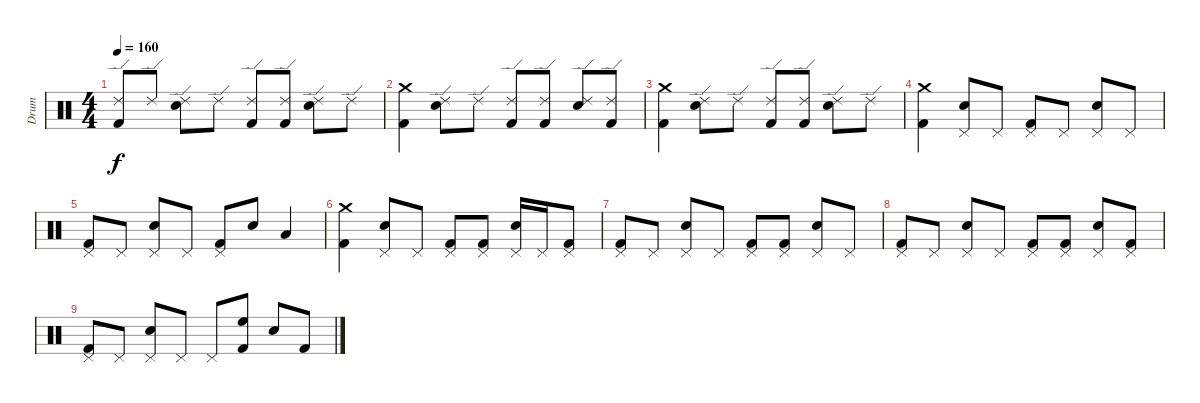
\track ("Drum" "Drum") {instrument percussion}
\staff {score}
\articulation defaults
\ts (4 4)
\tempo 160
\clef neutral
\ks c
("Ride (edge) 2" "Kick (hit) 2").8{dy f} "Ride (edge) 2".8 ("Ride (edge) 2" "Electric Snare (hit)").8 "Ride (edge) 2".8 ("Ride (edge) 2" "Kick (hit) 2").8 ("Ride (edge) 2" "Kick (hit) 2").8 ("Ride (edge) 2" "Electric Snare (hit)").8 "Ride (edge) 2".8 |
("Crash medium (hit)" "Kick (hit) 2").4 ("Ride (edge) 2" "Electric Snare (hit)").8 "Ride (edge) 2".8 ("Ride (edge) 2" "Kick (hit) 2").8 ("Ride (edge) 2" "Kick (hit) 2").8 ("Ride (edge) 2" "Electric Snare (hit)").8 ("Ride (edge) 2" "Kick (hit) 2").8 |
("Crash medium (hit)" "Kick (hit) 2").4 ("Ride (edge) 2" "Electric Snare (hit)").8 "Ride (edge) 2".8 ("Ride (edge) 2" "Kick (hit) 2").8 ("Ride (edge) 2" "Kick (hit) 2").8 ("Ride (edge) 2" "Electric Snare (hit)").8 "Ride (edge) 2".8 |
("Crash medium (hit)" "Kick (hit) 2").4 ("Pedal Hi-Hat (hit)" "Electric Snare (hit)").8 "Pedal Hi-Hat (hit)".8 ("Pedal Hi-Hat (hit)" "Kick (hit) 2").8 "Pedal Hi-Hat (hit)".8 ("Pedal Hi-Hat (hit)" "Electric Snare (hit)").8 "Pedal Hi-Hat (hit)".8 |
("Pedal Hi-Hat (hit)" "Kick (hit) 2").8 "Pedal Hi-Hat (hit)".8 ("Pedal Hi-Hat (hit)" "Electric Snare (hit)").8 "Pedal Hi-Hat (hit)".8 ("Pedal Hi-Hat (hit)" "Kick (hit) 2").8 "Electric Snare (hit)".8 "Low Tom (hit)".4 |
("Crash medium (hit)" "Kick (hit) 2").4 ("Pedal Hi-Hat (hit)" "Electric Snare (hit)").8 "Pedal Hi-Hat (hit)".8 ("Pedal Hi-Hat (hit)" "Kick (hit) 2").8 ("Pedal Hi-Hat (hit)" "Kick (hit) 2").8 ("Pedal Hi-Hat (hit)" "Electric Snare (hit)").16 "Pedal Hi-Hat (hit)".16 ("Pedal Hi-Hat (hit)" "Kick (hit) 2").8 |
("Pedal Hi-Hat (hit)" "Kick (hit) 2").8 "Pedal Hi-Hat (hit)".8 ("Pedal Hi-Hat (hit)" "Electric Snare (hit)").8 "Pedal Hi-Hat (hit)".8 ("Pedal Hi-Hat (hit)" "Kick (hit) 2").8 ("Pedal Hi-Hat (hit)" "Kick (hit) 2").8 ("Pedal Hi-Hat (hit)" "Electric Snare (hit)").8 "Pedal Hi-Hat (hit)".8 |
("Pedal Hi-Hat (hit)" "Kick (hit) 2").8 "Pedal Hi-Hat (hit)".8 ("Pedal Hi-Hat (hit)" "Electric Snare (hit)").8 "Pedal Hi-Hat (hit)".8 ("Pedal Hi-Hat (hit)" "Kick (hit) 2").8 ("Pedal Hi-Hat (hit)" "Kick (hit) 2").8 ("Pedal Hi-Hat (hit)" "Electric Snare (hit)").8 ("Pedal Hi-Hat (hit)" "Kick (hit) 2").8 |
("Pedal Hi-Hat (hit)" "Kick (hit) 2").8 "Pedal Hi-Hat (hit)".8 ("Pedal Hi-Hat (hit)" "Electric Snare (hit)").8 "Pedal Hi-Hat (hit)".8 "Pedal Hi-Hat (hit)".8 ("High Floor Tom (hit)" "Kick (hit) 2").8 "Electric Snare (hit)".8 "Kick (hit) 2".8
